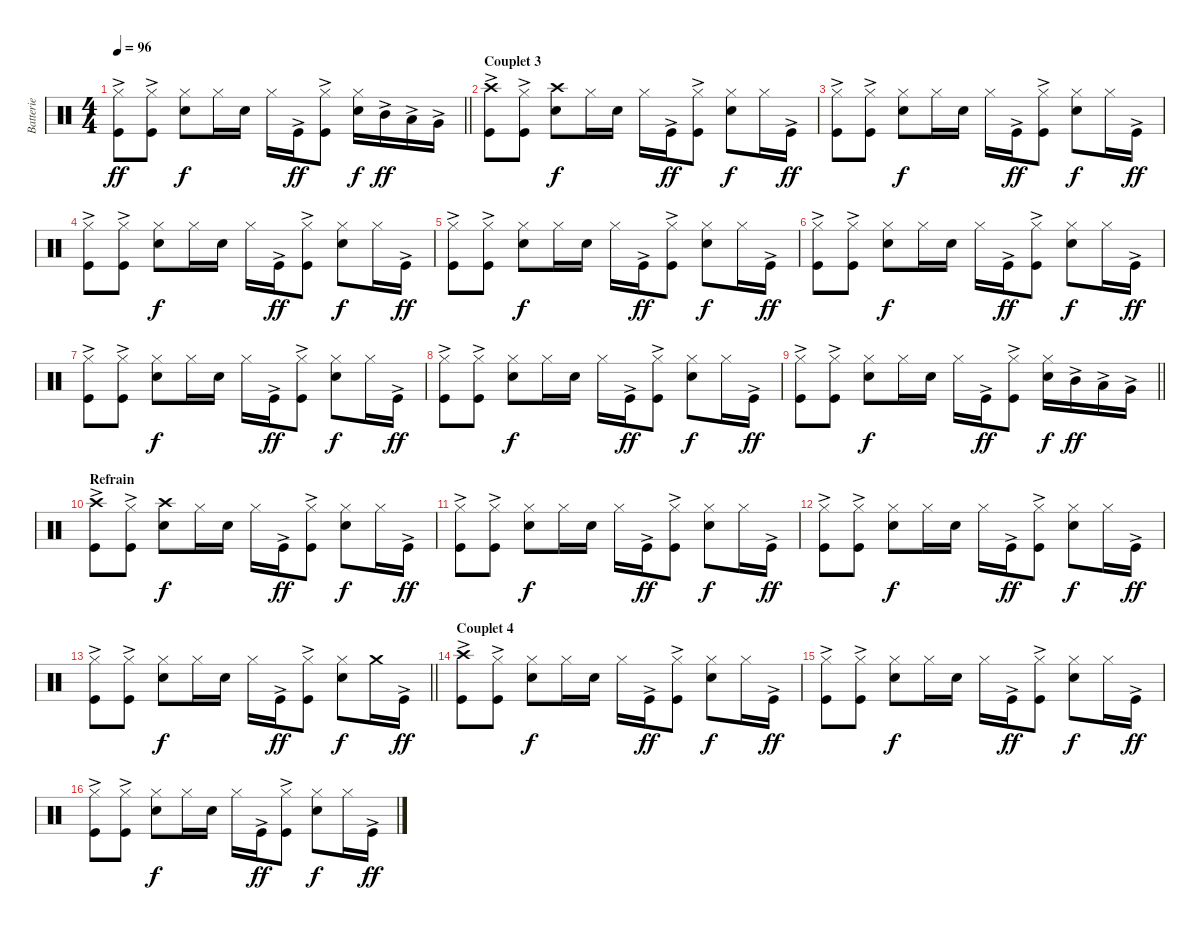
\track ("Batterie" "Batterie") {instrument percussion}
\staff {score}
\articulation defaults
\ts (4 4)
\tempo 96
\clef neutral
\barLineRight lightlight
\ks c
("Hi-Hat (closed)" "Kick (hit)"{ac}).8{dy ff} ("Hi-Hat (closed)" "Kick (hit)"{ac}).8 ("Hi-Hat (closed)" "Snare (hit) 2").8{dy f} "Hi-Hat (closed)".16 "Snare (hit) 2".16 "Hi-Hat (closed)".16 "Kick (hit)"{ac}.16{dy ff} ("Hi-Hat (closed)" "Kick (hit)"{ac}).8 ("Hi-Hat (closed)" "Snare (hit) 2").16{dy f} "Mid Tom (hit)"{ac}.16{dy ff} "Low Tom (hit)"{ac}.16 "Very Low Tom (hit)"{ac}.16 |
\section ("" "Couplet 3")
("Crash high (hit)" "Kick (hit)"{ac}).8 ("Hi-Hat (closed)" "Kick (hit)"{ac}).8 ("Crash high (hit)" "Snare (hit) 2").8{dy f} "Hi-Hat (closed)".16 "Snare (hit) 2".16 "Hi-Hat (closed)".16 "Kick (hit)"{ac}.16{dy ff} ("Hi-Hat (closed)" "Kick (hit)"{ac}).8 ("Hi-Hat (closed)" "Snare (hit) 2").8{dy f} "Hi-Hat (closed)".16 "Kick (hit)"{ac}.16{dy ff} |
("Hi-Hat (closed)" "Kick (hit)"{ac}).8 ("Hi-Hat (closed)" "Kick (hit)"{ac}).8 ("Hi-Hat (closed)" "Snare (hit) 2").8{dy f} "Hi-Hat (closed)".16 "Snare (hit) 2".16 "Hi-Hat (closed)".16 "Kick (hit)"{ac}.16{dy ff} ("Hi-Hat (closed)" "Kick (hit)"{ac}).8 ("Hi-Hat (closed)" "Snare (hit) 2").8{dy f} "Hi-Hat (closed)".16 "Kick (hit)"{ac}.16{dy ff} |
("Hi-Hat (closed)" "Kick (hit)"{ac}).8 ("Hi-Hat (closed)" "Kick (hit)"{ac}).8 ("Hi-Hat (closed)" "Snare (hit) 2").8{dy f} "Hi-Hat (closed)".16 "Snare (hit) 2".16 "Hi-Hat (closed)".16 "Kick (hit)"{ac}.16{dy ff} ("Hi-Hat (closed)" "Kick (hit)"{ac}).8 ("Hi-Hat (closed)" "Snare (hit) 2").8{dy f} "Hi-Hat (closed)".16 "Kick (hit)"{ac}.16{dy ff} |
("Hi-Hat (closed)" "Kick (hit)"{ac}).8 ("Hi-Hat (closed)" "Kick (hit)"{ac}).8 ("Hi-Hat (closed)" "Snare (hit) 2").8{dy f} "Hi-Hat (closed)".16 "Snare (hit) 2".16 "Hi-Hat (closed)".16 "Kick (hit)"{ac}.16{dy ff} ("Hi-Hat (closed)" "Kick (hit)"{ac}).8 ("Hi-Hat (closed)" "Snare (hit) 2").8{dy f} "Hi-Hat (closed)".16 "Kick (hit)"{ac}.16{dy ff} |
("Hi-Hat (closed)" "Kick (hit)"{ac}).8 ("Hi-Hat (closed)" "Kick (hit)"{ac}).8 ("Hi-Hat (closed)" "Snare (hit) 2").8{dy f} "Hi-Hat (closed)".16 "Snare (hit) 2".16 "Hi-Hat (closed)".16 "Kick (hit)"{ac}.16{dy ff} ("Hi-Hat (closed)" "Kick (hit)"{ac}).8 ("Hi-Hat (closed)" "Snare (hit) 2").8{dy f} "Hi-Hat (closed)".16 "Kick (hit)"{ac}.16{dy ff} |
("Hi-Hat (closed)" "Kick (hit)"{ac}).8 ("Hi-Hat (closed)" "Kick (hit)"{ac}).8 ("Hi-Hat (closed)" "Snare (hit) 2").8{dy f} "Hi-Hat (closed)".16 "Snare (hit) 2".16 "Hi-Hat (closed)".16 "Kick (hit)"{ac}.16{dy ff} ("Hi-Hat (closed)" "Kick (hit)"{ac}).8 ("Hi-Hat (closed)" "Snare (hit) 2").8{dy f} "Hi-Hat (closed)".16 "Kick (hit)"{ac}.16{dy ff} |
("Hi-Hat (closed)" "Kick (hit)"{ac}).8 ("Hi-Hat (closed)" "Kick (hit)"{ac}).8 ("Hi-Hat (closed)" "Snare (hit) 2").8{dy f} "Hi-Hat (closed)".16 "Snare (hit) 2".16 "Hi-Hat (closed)".16 "Kick (hit)"{ac}.16{dy ff} ("Hi-Hat (closed)" "Kick (hit)"{ac}).8 ("Hi-Hat (closed)" "Snare (hit) 2").8{dy f} "Hi-Hat (closed)".16 "Kick (hit)"{ac}.16{dy ff} |
\barLineRight lightlight
("Hi-Hat (closed)" "Kick (hit)"{ac}).8 ("Hi-Hat (closed)" "Kick (hit)"{ac}).8 ("Hi-Hat (closed)" "Snare (hit) 2").8{dy f} "Hi-Hat (closed)".16 "Snare (hit) 2".16 "Hi-Hat (closed)".16 "Kick (hit)"{ac}.16{dy ff} ("Hi-Hat (closed)" "Kick (hit)"{ac}).8 ("Hi-Hat (closed)" "Snare (hit) 2").16{dy f} "Mid Tom (hit)"{ac}.16{dy ff} "Low Tom (hit)"{ac}.16 "Very Low Tom (hit)"{ac}.16 |
\section ("" "Refrain")
("Crash high (hit)" "Kick (hit)"{ac}).8 ("Hi-Hat (closed)" "Kick (hit)"{ac}).8 ("Crash high (hit)" "Snare (hit) 2").8{dy f} "Hi-Hat (closed)".16 "Snare (hit) 2".16 "Hi-Hat (closed)".16 "Kick (hit)"{ac}.16{dy ff} ("Hi-Hat (closed)" "Kick (hit)"{ac}).8 ("Hi-Hat (closed)" "Snare (hit) 2").8{dy f} "Hi-Hat (closed)".16 "Kick (hit)"{ac}.16{dy ff} |
("Hi-Hat (closed)" "Kick (hit)"{ac}).8 ("Hi-Hat (closed)" "Kick (hit)"{ac}).8 ("Hi-Hat (closed)" "Snare (hit) 2").8{dy f} "Hi-Hat (closed)".16 "Snare (hit) 2".16 "Hi-Hat (closed)".16 "Kick (hit)"{ac}.16{dy ff} ("Hi-Hat (closed)" "Kick (hit)"{ac}).8 ("Hi-Hat (closed)" "Snare (hit) 2").8{dy f} "Hi-Hat (closed)".16 "Kick (hit)"{ac}.16{dy ff} |
("Hi-Hat (closed)" "Kick (hit)"{ac}).8 ("Hi-Hat (closed)" "Kick (hit)"{ac}).8 ("Hi-Hat (closed)" "Snare (hit) 2").8{dy f} "Hi-Hat (closed)".16 "Snare (hit) 2".16 "Hi-Hat (closed)".16 "Kick (hit)"{ac}.16{dy ff} ("Hi-Hat (closed)" "Kick (hit)"{ac}).8 ("Hi-Hat (closed)" "Snare (hit) 2").8{dy f} "Hi-Hat (closed)".16 "Kick (hit)"{ac}.16{dy ff} |
\barLineRight lightlight
("Hi-Hat (closed)" "Kick (hit)"{ac}).8 ("Hi-Hat (closed)" "Kick (hit)"{ac}).8 ("Hi-Hat (closed)" "Snare (hit) 2").8{dy f} "Hi-Hat (closed)".16 "Snare (hit) 2".16 "Hi-Hat (closed)".16 "Kick (hit)"{ac}.16{dy ff} ("Hi-Hat (closed)" "Kick (hit)"{ac}).8 ("Hi-Hat (closed)" "Snare (hit) 2").8{dy f} "Crash medium (hit)".16 "Kick (hit)"{ac}.16{dy ff} |
\section ("" "Couplet 4")
("Crash high (hit)" "Kick (hit)"{ac}).8 ("Hi-Hat (closed)" "Kick (hit)"{ac}).8 ("Hi-Hat (closed)" "Snare (hit) 2").8{dy f} "Hi-Hat (closed)".16 "Snare (hit) 2".16 "Hi-Hat (closed)".16 "Kick (hit)"{ac}.16{dy ff} ("Hi-Hat (closed)" "Kick (hit)"{ac}).8 ("Hi-Hat (closed)" "Snare (hit) 2").8{dy f} "Hi-Hat (closed)".16 "Kick (hit)"{ac}.16{dy ff} |
("Hi-Hat (closed)" "Kick (hit)"{ac}).8 ("Hi-Hat (closed)" "Kick (hit)"{ac}).8 ("Hi-Hat (closed)" "Snare (hit) 2").8{dy f} "Hi-Hat (closed)".16 "Snare (hit) 2".16 "Hi-Hat (closed)".16 "Kick (hit)"{ac}.16{dy ff} ("Hi-Hat (closed)" "Kick (hit)"{ac}).8 ("Hi-Hat (closed)" "Snare (hit) 2").8{dy f} "Hi-Hat (closed)".16 "Kick (hit)"{ac}.16{dy ff} |
("Hi-Hat (closed)" "Kick (hit)"{ac}).8 ("Hi-Hat (closed)" "Kick (hit)"{ac}).8 ("Hi-Hat (closed)" "Snare (hit) 2").8{dy f} "Hi-Hat (closed)".16 "Snare (hit) 2".16 "Hi-Hat (closed)".16 "Kick (hit)"{ac}.16{dy ff} ("Hi-Hat (closed)" "Kick (hit)"{ac}).8 ("Hi-Hat (closed)" "Snare (hit) 2").8{dy f} "Hi-Hat (closed)".16 "Kick (hit)"{ac}.16{dy ff}
